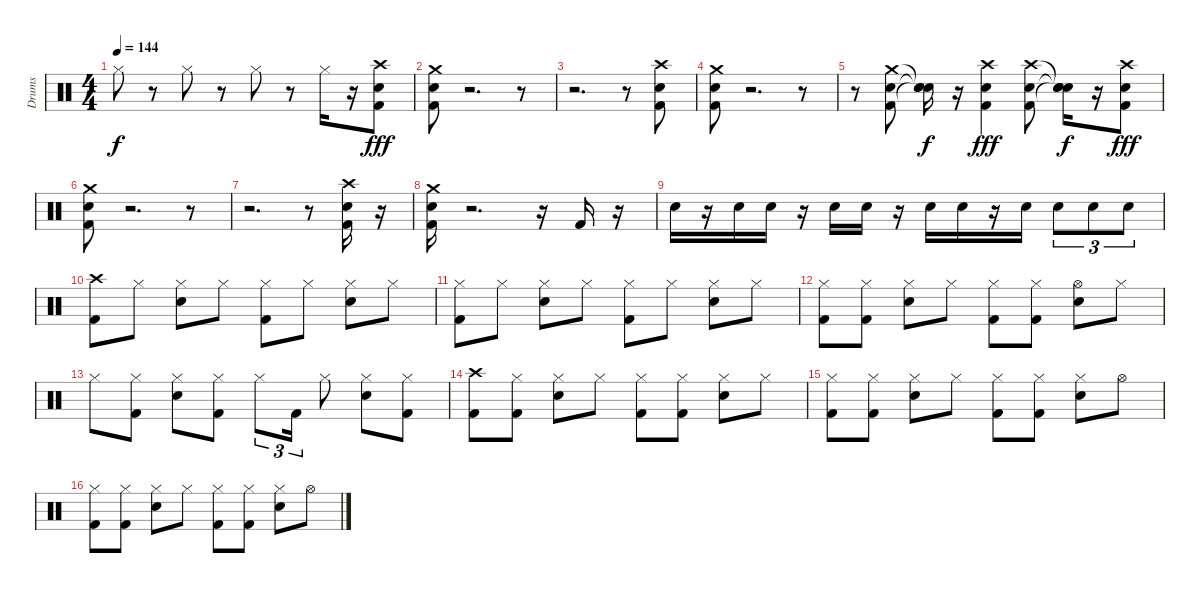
\track ("Drums" "Drums") {instrument percussion}
\staff {score}
\articulation defaults
\ts (4 4)
\tempo 144
\clef neutral
\ks c "Hi-Hat (closed)".8{dy f}
r.8 "Hi-Hat (closed)".8 r.8 "Hi-Hat (closed)".8 r.8 "Hi-Hat (closed)".16 r.16 ("Crash high (hit)" "Snare (hit) 2" "Kick (hit) 2").8{dy fff} |
("Kick (hit) 2" "Snare (hit) 2" "Crash medium (hit)").8 r.2{d} r.8 |
r.2{d} r.8 ("Kick (hit) 2" "Snare (hit) 2" "Crash high (hit)").8 |
("Kick (hit) 2" "Snare (hit) 2" "Crash medium (hit)").8 r.2{d} r.8 |
r.8 ("Kick (hit) 2" "Snare (hit) 2" "Crash medium (hit)").8 ("Snare (hit)"{t} "Snare (hit)"{t} "Snare (hit)"{t}).16{dy f} r.16 ("Kick (hit) 2" "Snare (hit) 2" "Crash high (hit)").4{dy fff} ("Kick (hit) 2" "Snare (hit) 2" "Crash high (hit)").8 ("Snare (hit)"{t} "Snare (hit)"{t} "Snare (hit)"{t}).16{dy f} r.16 ("Kick (hit) 2" "Snare (hit) 2" "Crash high (hit)").8{dy fff} |
("Kick (hit) 2" "Snare (hit) 2" "Crash medium (hit)").8 r.2{d} r.8 |
r.2{d} r.8 ("Kick (hit) 2" "Snare (hit) 2" "Crash high (hit)").16 r.16 |
("Kick (hit) 2" "Snare (hit) 2" "Crash medium (hit)").16 r.2{d} r.16 "Kick (hit) 2".16 r.16 |
"Snare (hit) 2".16 r.16 "Snare (hit) 2".16 "Snare (hit) 2".16 r.16 "Snare (hit) 2".16 "Snare (hit) 2".16 r.16 "Snare (hit) 2".16 "Snare (hit) 2".16 r.16 "Snare (hit) 2".16 "Snare (hit) 2".8{tu (3 2)} "Snare (hit) 2".8{tu (3 2)} "Snare (hit) 2".8{tu (3 2)} |
("Kick (hit) 2" "Crash high (hit)").8 "Hi-Hat (closed)".8 ("Snare (hit) 2" "Hi-Hat (closed)").8 "Hi-Hat (closed)".8 ("Kick (hit) 2" "Hi-Hat (closed)").8 "Hi-Hat (closed)".8 ("Snare (hit) 2" "Hi-Hat (closed)").8 "Hi-Hat (closed)".8 |
("Kick (hit) 2" "Hi-Hat (closed)").8 "Hi-Hat (closed)".8 ("Snare (hit) 2" "Hi-Hat (closed)").8 "Hi-Hat (closed)".8 ("Kick (hit) 2" "Hi-Hat (closed)").8 "Hi-Hat (closed)".8 ("Snare (hit) 2" "Hi-Hat (closed)").8 "Hi-Hat (closed)".8 |
("Kick (hit) 2" "Hi-Hat (closed)").8 ("Kick (hit) 2" "Hi-Hat (closed)").8 ("Snare (hit) 2" "Hi-Hat (closed)").8 "Hi-Hat (closed)".8 ("Kick (hit) 2" "Hi-Hat (closed)").8 ("Kick (hit) 2" "Hi-Hat (closed)").8 ("Snare (hit) 2" "Hi-Hat (open)").8 "Hi-Hat (closed)".8 |
"Hi-Hat (closed)".8 ("Kick (hit) 2" "Hi-Hat (closed)").8 ("Snare (hit) 2" "Hi-Hat (closed)").8 ("Hi-Hat (closed)" "Kick (hit) 2").8 "Hi-Hat (closed)".8{tu (3 2)} "Kick (hit) 2".16{tu (3 2)} "Hi-Hat (closed)".8 ("Snare (hit) 2" "Hi-Hat (closed)").8 ("Hi-Hat (closed)" "Kick (hit) 2").8 |
("Kick (hit) 2" "Crash high (hit)").8 ("Kick (hit) 2" "Hi-Hat (closed)").8 ("Snare (hit) 2" "Hi-Hat (closed)").8 "Hi-Hat (closed)".8 ("Kick (hit) 2" "Hi-Hat (closed)").8 ("Kick (hit) 2" "Hi-Hat (closed)").8 ("Snare (hit) 2" "Hi-Hat (closed)").8 "Hi-Hat (closed)".8 |
("Kick (hit) 2" "Hi-Hat (closed)").8 ("Kick (hit) 2" "Hi-Hat (closed)").8 ("Snare (hit) 2" "Hi-Hat (closed)").8 "Hi-Hat (closed)".8 ("Kick (hit) 2" "Hi-Hat (closed)").8 ("Kick (hit) 2" "Hi-Hat (closed)").8 ("Snare (hit) 2" "Hi-Hat (closed)").8 "Hi-Hat (open)".8 |
("Hi-Hat (closed)" "Kick (hit) 2").8 ("Kick (hit) 2" "Hi-Hat (closed)").8 ("Snare (hit) 2" "Hi-Hat (closed)").8 "Hi-Hat (closed)".8 ("Kick (hit) 2" "Hi-Hat (closed)").8 ("Kick (hit) 2" "Hi-Hat (closed)").8 ("Snare (hit) 2" "Hi-Hat (closed)").8 "Hi-Hat (open)".8
